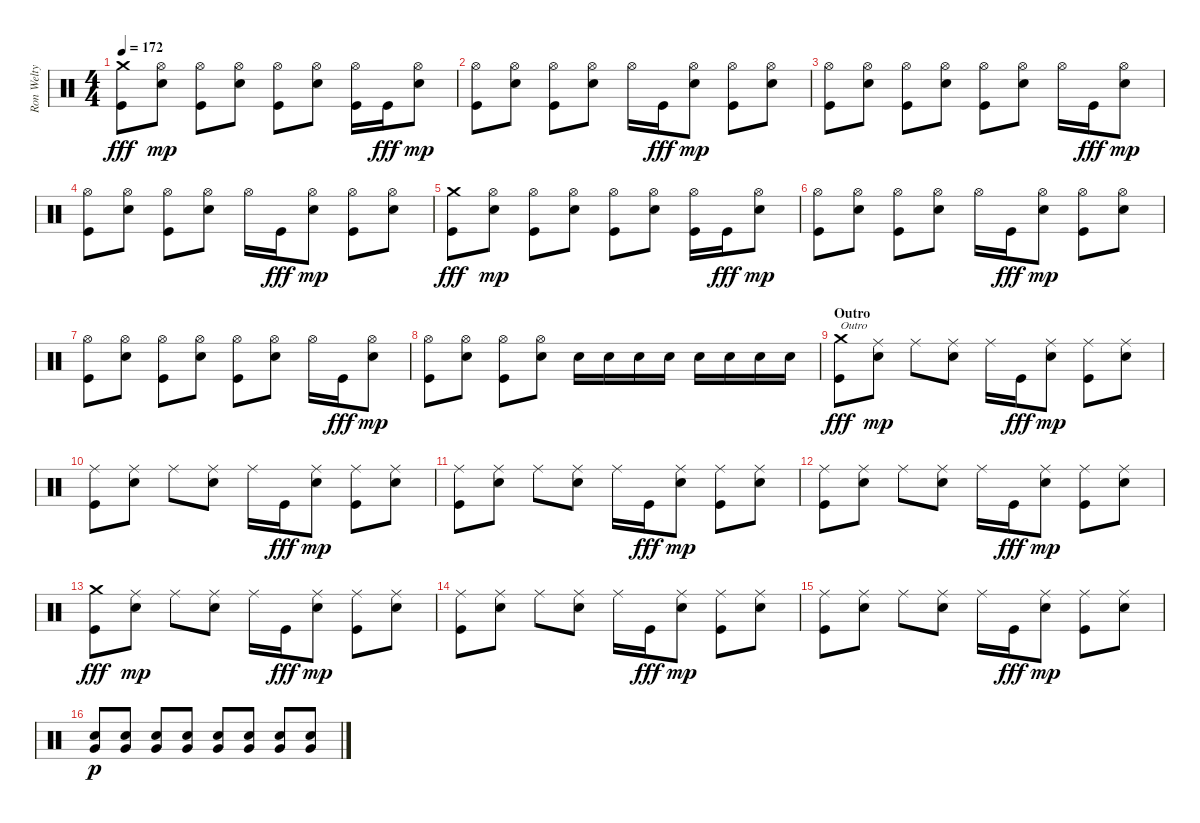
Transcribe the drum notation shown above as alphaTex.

\track ("Ron Welty (John Wnek's tab)" "Ron Welty ") {instrument percussion}
\staff {score}
\articulation defaults
\ts (4 4)
\tempo 172
\clef neutral
\ks c
("Crash medium (hit)" "Kick (hit)").8{dy fff} ("Snare (hit) 2" "Hi-Hat (open)").8{dy mp} ("Kick (hit)" "Hi-Hat (open)").8 ("Snare (hit) 2" "Hi-Hat (open)").8 ("Kick (hit)" "Hi-Hat (open)").8 ("Snare (hit) 2" "Hi-Hat (open)").8 ("Kick (hit)" "Hi-Hat (open)").16 "Kick (hit)".16{dy fff} ("Snare (hit) 2" "Hi-Hat (open)").8{dy mp} |
("Kick (hit)" "Hi-Hat (open)").8 ("Snare (hit) 2" "Hi-Hat (open)").8 ("Kick (hit)" "Hi-Hat (open)").8 ("Snare (hit) 2" "Hi-Hat (open)").8 "Hi-Hat (open)".16 "Kick (hit)".16{dy fff} ("Snare (hit) 2" "Hi-Hat (open)").8{dy mp} ("Kick (hit)" "Hi-Hat (open)").8 ("Snare (hit) 2" "Hi-Hat (open)").8 |
("Kick (hit)" "Hi-Hat (open)").8 ("Snare (hit) 2" "Hi-Hat (open)").8 ("Kick (hit)" "Hi-Hat (open)").8 ("Snare (hit) 2" "Hi-Hat (open)").8 ("Kick (hit)" "Hi-Hat (open)").8 ("Snare (hit) 2" "Hi-Hat (open)").8 "Hi-Hat (open)".16 "Kick (hit)".16{dy fff} ("Snare (hit) 2" "Hi-Hat (open)").8{dy mp} |
("Kick (hit)" "Hi-Hat (open)").8 ("Snare (hit) 2" "Hi-Hat (open)").8 ("Kick (hit)" "Hi-Hat (open)").8 ("Snare (hit) 2" "Hi-Hat (open)").8 "Hi-Hat (open)".16 "Kick (hit)".16{dy fff} ("Snare (hit) 2" "Hi-Hat (open)").8{dy mp} ("Kick (hit)" "Hi-Hat (open)").8 ("Snare (hit) 2" "Hi-Hat (open)").8 |
("Crash medium (hit)" "Kick (hit)").8{dy fff} ("Snare (hit) 2" "Hi-Hat (open)").8{dy mp} ("Kick (hit)" "Hi-Hat (open)").8 ("Snare (hit) 2" "Hi-Hat (open)").8 ("Kick (hit)" "Hi-Hat (open)").8 ("Snare (hit) 2" "Hi-Hat (open)").8 ("Kick (hit)" "Hi-Hat (open)").16 "Kick (hit)".16{dy fff} ("Snare (hit) 2" "Hi-Hat (open)").8{dy mp} |
("Kick (hit)" "Hi-Hat (open)").8 ("Snare (hit) 2" "Hi-Hat (open)").8 ("Kick (hit)" "Hi-Hat (open)").8 ("Snare (hit) 2" "Hi-Hat (open)").8 "Hi-Hat (open)".16 "Kick (hit)".16{dy fff} ("Snare (hit) 2" "Hi-Hat (open)").8{dy mp} ("Kick (hit)" "Hi-Hat (open)").8 ("Snare (hit) 2" "Hi-Hat (open)").8 |
("Kick (hit)" "Hi-Hat (open)").8 ("Snare (hit) 2" "Hi-Hat (open)").8 ("Kick (hit)" "Hi-Hat (open)").8 ("Snare (hit) 2" "Hi-Hat (open)").8 ("Kick (hit)" "Hi-Hat (open)").8 ("Snare (hit) 2" "Hi-Hat (open)").8 "Hi-Hat (open)".16 "Kick (hit)".16{dy fff} ("Snare (hit) 2" "Hi-Hat (open)").8{dy mp} |
("Kick (hit)" "Hi-Hat (open)").8 ("Snare (hit) 2" "Hi-Hat (open)").8 ("Kick (hit)" "Hi-Hat (open)").8 ("Snare (hit) 2" "Hi-Hat (open)").8 "Snare (hit) 2".16 "Snare (hit) 2".16 "Snare (hit) 2".16 "Snare (hit) 2".16 "Snare (hit) 2".16 "Snare (hit) 2".16 "Snare (hit) 2".16 "Snare (hit) 2".16 |
\section ("" "Outro")
("Crash medium (hit)" "Kick (hit)").8{txt "Outro" dy fff} ("Snare (hit) 2" "Ride (middle)").8{dy mp} "Ride (middle)".8 ("Snare (hit) 2" "Ride (middle)").8 "Ride (middle)".16 "Kick (hit)".16{dy fff} ("Snare (hit) 2" "Ride (middle)").8{dy mp} ("Kick (hit)" "Ride (middle)").8 ("Snare (hit) 2" "Ride (middle)").8 |
("Kick (hit)" "Ride (middle)").8 ("Snare (hit) 2" "Ride (middle)").8 "Ride (middle)".8 ("Snare (hit) 2" "Ride (middle)").8 "Ride (middle)".16 "Kick (hit)".16{dy fff} ("Snare (hit) 2" "Ride (middle)").8{dy mp} ("Kick (hit)" "Ride (middle)").8 ("Snare (hit) 2" "Ride (middle)").8 |
("Kick (hit)" "Ride (middle)").8 ("Snare (hit) 2" "Ride (middle)").8 "Ride (middle)".8 ("Snare (hit) 2" "Ride (middle)").8 "Ride (middle)".16 "Kick (hit)".16{dy fff} ("Snare (hit) 2" "Ride (middle)").8{dy mp} ("Kick (hit)" "Ride (middle)").8 ("Snare (hit) 2" "Ride (middle)").8 |
("Kick (hit)" "Ride (middle)").8 ("Snare (hit) 2" "Ride (middle)").8 "Ride (middle)".8 ("Snare (hit) 2" "Ride (middle)").8 "Ride (middle)".16 "Kick (hit)".16{dy fff} ("Snare (hit) 2" "Ride (middle)").8{dy mp} ("Kick (hit)" "Ride (middle)").8 ("Snare (hit) 2" "Ride (middle)").8 |
("Crash medium (hit)" "Kick (hit)").8{dy fff} ("Snare (hit) 2" "Ride (middle)").8{dy mp} "Ride (middle)".8 ("Snare (hit) 2" "Ride (middle)").8 "Ride (middle)".16 "Kick (hit)".16{dy fff} ("Snare (hit) 2" "Ride (middle)").8{dy mp} ("Kick (hit)" "Ride (middle)").8 ("Snare (hit) 2" "Ride (middle)").8 |
("Kick (hit)" "Ride (middle)").8 ("Snare (hit) 2" "Ride (middle)").8 "Ride (middle)".8 ("Snare (hit) 2" "Ride (middle)").8 "Ride (middle)".16 "Kick (hit)".16{dy fff} ("Snare (hit) 2" "Ride (middle)").8{dy mp} ("Kick (hit)" "Ride (middle)").8 ("Snare (hit) 2" "Ride (middle)").8 |
("Kick (hit)" "Ride (middle)").8 ("Snare (hit) 2" "Ride (middle)").8 "Ride (middle)".8 ("Snare (hit) 2" "Ride (middle)").8 "Ride (middle)".16 "Kick (hit)".16{dy fff} ("Snare (hit) 2" "Ride (middle)").8{dy mp} ("Kick (hit)" "Ride (middle)").8 ("Snare (hit) 2" "Ride (middle)").8 |
("Snare (hit) 2" "Very Low Tom (hit)").8{dy p} ("Snare (hit) 2" "Very Low Tom (hit)").8 ("Snare (hit) 2" "Very Low Tom (hit)").8 ("Snare (hit) 2" "Very Low Tom (hit)").8 ("Snare (hit) 2" "Very Low Tom (hit)").8 ("Snare (hit) 2" "Very Low Tom (hit)").8 ("Snare (hit) 2" "Very Low Tom (hit)").8 ("Snare (hit) 2" "Very Low Tom (hit)").8
